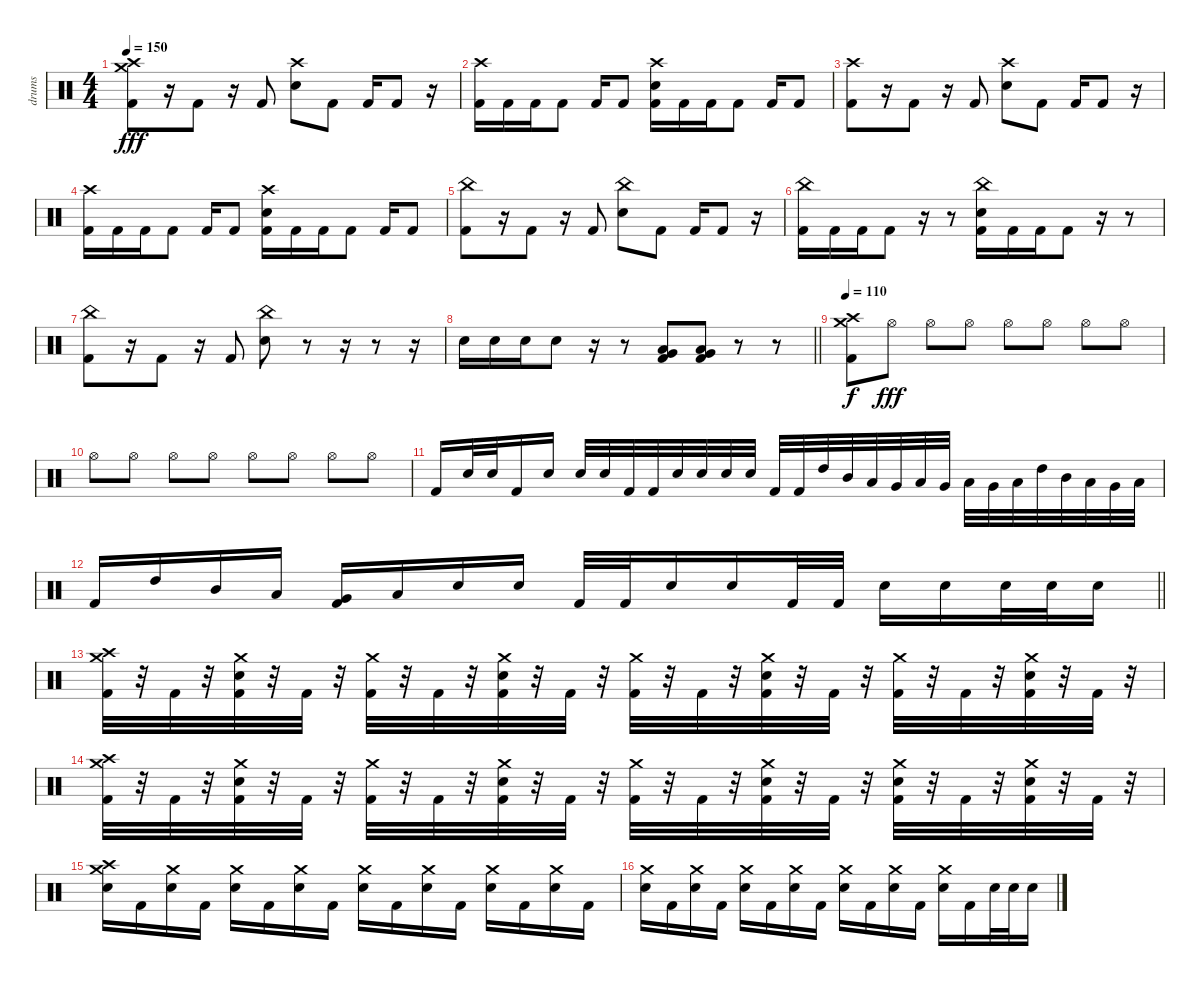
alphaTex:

\track ("drums" "drums") {instrument percussion}
\staff {score}
\articulation defaults
\ts (4 4)
\tempo 150
\clef neutral
\ks c
("Crash high (hit)" "Crash medium (hit)" "Kick (hit) 2").8{dy fff} r.16 "Kick (hit) 2".8 r.16 "Kick (hit) 2".8 ("Crash high (hit)" "Electric Snare (hit)").8 "Kick (hit) 2".8 "Kick (hit) 2".16 "Kick (hit) 2".8 r.16 |
("Crash high (hit)" "Kick (hit) 2").16 "Kick (hit) 2".16 "Kick (hit) 2".16 "Kick (hit) 2".8 "Kick (hit) 2".16 "Kick (hit) 2".8 ("Crash high (hit)" "Electric Snare (hit)" "Kick (hit) 2").16 "Kick (hit) 2".16 "Kick (hit) 2".16 "Kick (hit) 2".8 "Kick (hit) 2".16 "Kick (hit) 2".8 |
("Crash high (hit)" "Kick (hit) 2").8 r.16 "Kick (hit) 2".8 r.16 "Kick (hit) 2".8 ("Crash high (hit)" "Electric Snare (hit)").8 "Kick (hit) 2".8 "Kick (hit) 2".16 "Kick (hit) 2".8 r.16 |
("Crash high (hit)" "Kick (hit) 2").16 "Kick (hit) 2".16 "Kick (hit) 2".16 "Kick (hit) 2".8 "Kick (hit) 2".16 "Kick (hit) 2".8 ("Crash high (hit)" "Electric Snare (hit)" "Kick (hit) 2").16 "Kick (hit) 2".16 "Kick (hit) 2".16 "Kick (hit) 2".8 "Kick (hit) 2".16 "Kick (hit) 2".8 |
("China (hit)" "Kick (hit) 2").8 r.16 "Kick (hit) 2".8 r.16 "Kick (hit) 2".8 ("China (hit)" "Electric Snare (hit)").8 "Kick (hit) 2".8 "Kick (hit) 2".16 "Kick (hit) 2".8 r.16 |
("China (hit)" "Kick (hit) 2").16 "Kick (hit) 2".16 "Kick (hit) 2".16 "Kick (hit) 2".8 r.16 r.8 ("China (hit)" "Electric Snare (hit)" "Kick (hit) 2").16 "Kick (hit) 2".16 "Kick (hit) 2".16 "Kick (hit) 2".8 r.16 r.8 |
("China (hit)" "Kick (hit) 2").8 r.16 "Kick (hit) 2".8 r.16 "Kick (hit) 2".8 ("China (hit)" "Electric Snare (hit)").8 r.8 r.16 r.8 r.16 |
\barLineRight lightlight "Electric Snare (hit)".16 "Electric Snare (hit)".16 "Electric Snare (hit)".16 "Electric Snare (hit)".8
r.16 r.8 ("Low Floor Tom (hit)" "Very Low Tom (hit)" "Kick (hit) 2").8 ("Low Floor Tom (hit)" "Very Low Tom (hit)" "Kick (hit) 2").8 r.8 r.8 |
\section ("" "")
\tempo 110
("Crash high (hit)" "Crash medium (hit)" "Kick (hit) 2").8{dy f} "Hi-Hat (open)".8{dy fff} "Hi-Hat (open)".8 "Hi-Hat (open)".8 "Hi-Hat (open)".8 "Hi-Hat (open)".8 "Hi-Hat (open)".8 "Hi-Hat (open)".8 |
"Hi-Hat (open)".8 "Hi-Hat (open)".8 "Hi-Hat (open)".8 "Hi-Hat (open)".8 "Hi-Hat (open)".8 "Hi-Hat (open)".8 "Hi-Hat (open)".8 "Hi-Hat (open)".8 |
"Kick (hit) 2".16 "Electric Snare (hit)".32 "Electric Snare (hit)".32 "Kick (hit) 2".16 "Electric Snare (hit)".16 "Electric Snare (hit)".32 "Electric Snare (hit)".32 "Kick (hit) 2".32 "Kick (hit) 2".32 "Electric Snare (hit)".32 "Electric Snare (hit)".32 "Electric Snare (hit)".32 "Electric Snare (hit)".32 "Kick (hit) 2".32 "Kick (hit) 2".32 "High Tom (hit)".32 "Mid Tom (hit)".32 "Low Tom (hit)".32 "Very Low Tom (hit)".32 "Low Floor Tom (hit)".32 "Very Low Tom (hit)".32 "Low Floor Tom (hit)".32 "Very Low Tom (hit)".32 "Low Floor Tom (hit)".32 "High Tom (hit)".32 "Mid Tom (hit)".32 "Low Tom (hit)".32 "Very Low Tom (hit)".32 "Low Tom (hit)".32 |
\barLineRight lightlight "Kick (hit) 2".16 "High Tom (hit)".16 "Mid Tom (hit)".16 "Low Tom (hit)".16
("Very Low Tom (hit)" "Kick (hit) 2").16 "Low Floor Tom (hit)".16 "Electric Snare (hit)".16 "Electric Snare (hit)".16 "Kick (hit) 2".32 "Kick (hit) 2".32 "Electric Snare (hit)".16 "Electric Snare (hit)".16 "Kick (hit) 2".32 "Kick (hit) 2".32 "Electric Snare (hit)".16 "Electric Snare (hit)".16 "Electric Snare (hit)".32 "Electric Snare (hit)".32 "Electric Snare (hit)".16 |
\section ("" "")
("Crash high (hit)" "Crash medium (hit)" "Kick (hit) 2").32 r.32 "Kick (hit) 2".32 r.32 ("Crash medium (hit)" "Electric Snare (hit)" "Kick (hit) 2").32 r.32 "Kick (hit) 2".32 r.32 ("Crash medium (hit)" "Kick (hit) 2").32 r.32 "Kick (hit) 2".32 r.32 ("Crash medium (hit)" "Electric Snare (hit)" "Kick (hit) 2").32 r.32 "Kick (hit) 2".32 r.32 ("Crash medium (hit)" "Kick (hit) 2").32 r.32 "Kick (hit) 2".32 r.32 ("Crash medium (hit)" "Electric Snare (hit)" "Kick (hit) 2").32 r.32 "Kick (hit) 2".32 r.32 ("Crash medium (hit)" "Kick (hit) 2").32 r.32 "Kick (hit) 2".32 r.32 ("Crash medium (hit)" "Electric Snare (hit)" "Kick (hit) 2").32 r.32 "Kick (hit) 2".32 r.32 |
("Crash high (hit)" "Crash medium (hit)" "Kick (hit) 2").32 r.32 "Kick (hit) 2".32 r.32 ("Crash medium (hit)" "Electric Snare (hit)" "Kick (hit) 2").32 r.32 "Kick (hit) 2".32 r.32 ("Crash medium (hit)" "Kick (hit) 2").32 r.32 "Kick (hit) 2".32 r.32 ("Crash medium (hit)" "Electric Snare (hit)" "Kick (hit) 2").32 r.32 "Kick (hit) 2".32 r.32 ("Crash medium (hit)" "Kick (hit) 2").32 r.32 "Kick (hit) 2".32 r.32 ("Crash medium (hit)" "Electric Snare (hit)" "Kick (hit) 2").32 r.32 "Kick (hit) 2".32 r.32 ("Crash medium (hit)" "Electric Snare (hit)" "Kick (hit) 2").32 r.32 "Kick (hit) 2".32 r.32 ("Crash medium (hit)" "Electric Snare (hit)" "Kick (hit) 2").32 r.32 "Kick (hit) 2".32 r.32 |
("Crash medium (hit)" "Crash high (hit)" "Electric Snare (hit)").16 "Kick (hit) 2".16 ("Crash medium (hit)" "Electric Snare (hit)").16 "Kick (hit) 2".16 ("Crash medium (hit)" "Electric Snare (hit)").16 "Kick (hit) 2".16 ("Crash medium (hit)" "Electric Snare (hit)").16 "Kick (hit) 2".16 ("Crash medium (hit)" "Electric Snare (hit)").16 "Kick (hit) 2".16 ("Crash medium (hit)" "Electric Snare (hit)").16 "Kick (hit) 2".16 ("Crash medium (hit)" "Electric Snare (hit)").16 "Kick (hit) 2".16 ("Crash medium (hit)" "Electric Snare (hit)").16 "Kick (hit) 2".16 |
("Crash medium (hit)" "Electric Snare (hit)").16 "Kick (hit) 2".16 ("Crash medium (hit)" "Electric Snare (hit)").16 "Kick (hit) 2".16 ("Crash medium (hit)" "Electric Snare (hit)").16 "Kick (hit) 2".16 ("Crash medium (hit)" "Electric Snare (hit)").16 "Kick (hit) 2".16 ("Crash medium (hit)" "Electric Snare (hit)").16 "Kick (hit) 2".16 ("Crash medium (hit)" "Electric Snare (hit)").16 "Kick (hit) 2".16 ("Crash medium (hit)" "Electric Snare (hit)").16 "Kick (hit) 2".16 "Electric Snare (hit)".32 "Electric Snare (hit)".32 "Electric Snare (hit)".16
